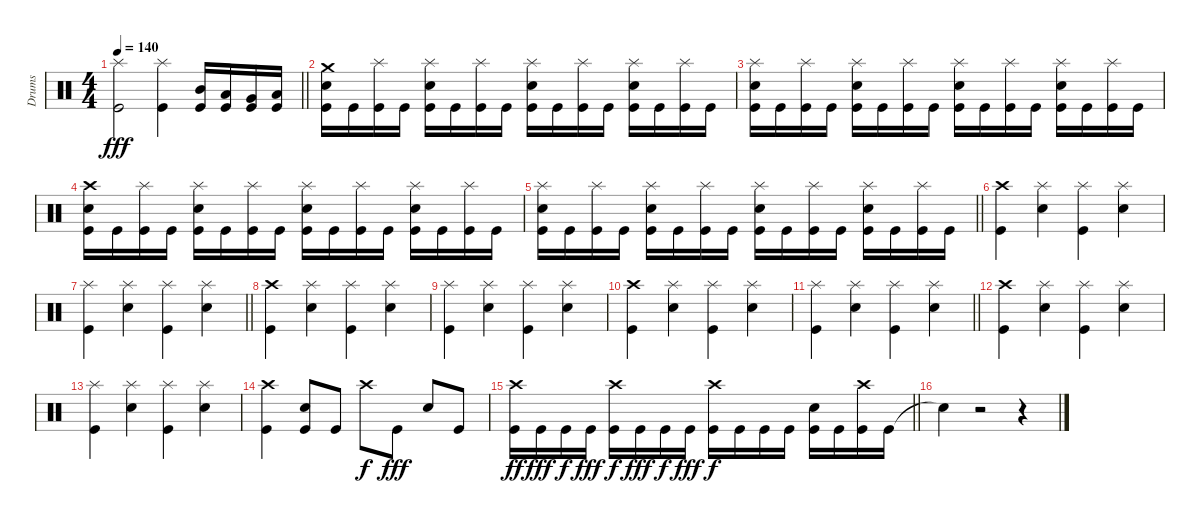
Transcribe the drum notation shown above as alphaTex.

\track ("Drums" "Drums") {instrument percussion}
\staff {score}
\articulation defaults
\ts (4 4)
\tempo 140
\clef neutral
\barLineRight lightlight
\ks c
("Splash (hit)" "Kick (hit)").2{dy fff} ("Splash (hit)" "Kick (hit)").4 ("Mid Tom (hit)" "Kick (hit)").16 ("Low Tom (hit)" "Kick (hit)").16 ("Very Low Tom (hit)" "Kick (hit)").16 ("Low Floor Tom (hit)" "Kick (hit)").16 |
("Crash medium (hit)" "Electric Snare (hit)" "Kick (hit)").16 "Kick (hit)".16 ("Splash (hit)" "Kick (hit)").16 "Kick (hit)".16 ("Splash (hit)" "Electric Snare (hit)" "Kick (hit)").16 "Kick (hit)".16 ("Splash (hit)" "Kick (hit)").16 "Kick (hit)".16 ("Splash (hit)" "Electric Snare (hit)" "Kick (hit)").16 "Kick (hit)".16 ("Splash (hit)" "Kick (hit)").16 "Kick (hit)".16 ("Splash (hit)" "Electric Snare (hit)" "Kick (hit)").16 "Kick (hit)".16 ("Splash (hit)" "Kick (hit)").16 "Kick (hit)".16 |
("Splash (hit)" "Electric Snare (hit)" "Kick (hit)").16 "Kick (hit)".16 ("Splash (hit)" "Kick (hit)").16 "Kick (hit)".16 ("Splash (hit)" "Electric Snare (hit)" "Kick (hit)").16 "Kick (hit)".16 ("Splash (hit)" "Kick (hit)").16 "Kick (hit)".16 ("Splash (hit)" "Electric Snare (hit)" "Kick (hit)").16 "Kick (hit)".16 ("Splash (hit)" "Kick (hit)").16 "Kick (hit)".16 ("Splash (hit)" "Electric Snare (hit)" "Kick (hit)").16 "Kick (hit)".16 ("Splash (hit)" "Kick (hit)").16 "Kick (hit)".16 |
("Crash high (hit)" "Electric Snare (hit)" "Kick (hit)").16 "Kick (hit)".16 ("Splash (hit)" "Kick (hit)").16 "Kick (hit)".16 ("Splash (hit)" "Electric Snare (hit)" "Kick (hit)").16 "Kick (hit)".16 ("Splash (hit)" "Kick (hit)").16 "Kick (hit)".16 ("Splash (hit)" "Electric Snare (hit)" "Kick (hit)").16 "Kick (hit)".16 ("Splash (hit)" "Kick (hit)").16 "Kick (hit)".16 ("Splash (hit)" "Electric Snare (hit)" "Kick (hit)").16 "Kick (hit)".16 ("Splash (hit)" "Kick (hit)").16 "Kick (hit)".16 |
\barLineRight lightlight
("Splash (hit)" "Electric Snare (hit)" "Kick (hit)").16 "Kick (hit)".16 ("Splash (hit)" "Kick (hit)").16 "Kick (hit)".16 ("Splash (hit)" "Electric Snare (hit)" "Kick (hit)").16 "Kick (hit)".16 ("Splash (hit)" "Kick (hit)").16 "Kick (hit)".16 ("Splash (hit)" "Electric Snare (hit)" "Kick (hit)").16 "Kick (hit)".16 ("Splash (hit)" "Kick (hit)").16 "Kick (hit)".16 ("Splash (hit)" "Electric Snare (hit)" "Kick (hit)").16 "Kick (hit)".16 ("Splash (hit)" "Kick (hit)").16 "Kick (hit)".16 |
("Crash high (hit)" "Kick (hit)").4 ("Splash (hit)" "Electric Snare (hit)").4 ("Splash (hit)" "Kick (hit)").4 ("Splash (hit)" "Electric Snare (hit)").4 |
\barLineRight lightlight
("Splash (hit)" "Kick (hit)").4 ("Splash (hit)" "Electric Snare (hit)").4 ("Splash (hit)" "Kick (hit)").4 ("Splash (hit)" "Electric Snare (hit)").4 |
("Crash high (hit)" "Kick (hit)").4 ("Splash (hit)" "Electric Snare (hit)").4 ("Splash (hit)" "Kick (hit)").4 ("Splash (hit)" "Electric Snare (hit)").4 |
("Splash (hit)" "Kick (hit)").4 ("Splash (hit)" "Electric Snare (hit)").4 ("Splash (hit)" "Kick (hit)").4 ("Splash (hit)" "Electric Snare (hit)").4 |
("Crash high (hit)" "Kick (hit)").4 ("Splash (hit)" "Electric Snare (hit)").4 ("Splash (hit)" "Kick (hit)").4 ("Splash (hit)" "Electric Snare (hit)").4 |
\barLineRight lightlight
("Splash (hit)" "Kick (hit)").4 ("Splash (hit)" "Electric Snare (hit)").4 ("Splash (hit)" "Kick (hit)").4 ("Splash (hit)" "Electric Snare (hit)").4 |
("Crash high (hit)" "Kick (hit)").4 ("Splash (hit)" "Electric Snare (hit)").4 ("Splash (hit)" "Kick (hit)").4 ("Splash (hit)" "Electric Snare (hit)").4 |
("Splash (hit)" "Kick (hit)").4 ("Splash (hit)" "Electric Snare (hit)").4 ("Splash (hit)" "Kick (hit)").4 ("Splash (hit)" "Electric Snare (hit)").4 |
("Crash high (hit)" "Kick (hit)").4 ("Electric Snare (hit)" "Kick (hit)").8 "Kick (hit)".8 "Crash high (hit)".8{dy f} "Kick (hit)".8{dy fff} "Electric Snare (hit)".8 "Kick (hit)".8 |
\barLineRight lightlight
("Crash high (hit)" "Kick (hit)").16{dy ff} "Kick (hit)".16{dy fff} "Kick (hit)".16{dy f} "Kick (hit)".16{dy fff} ("Crash high (hit)" "Kick (hit)").16{dy f} "Kick (hit)".16{dy fff} "Kick (hit)".16{dy f} "Kick (hit)".16{dy fff} ("Crash high (hit)" "Kick (hit)").16{dy f} "Kick (hit)".16 "Kick (hit)".16 "Kick (hit)".16 ("Electric Snare (hit)" "Kick (hit)").16 "Kick (hit)".16 ("Crash high (hit)" "Kick (hit)").16 "Kick (hit)".16 |
"Snare (hit)"{t}.4 r.2 r.4
